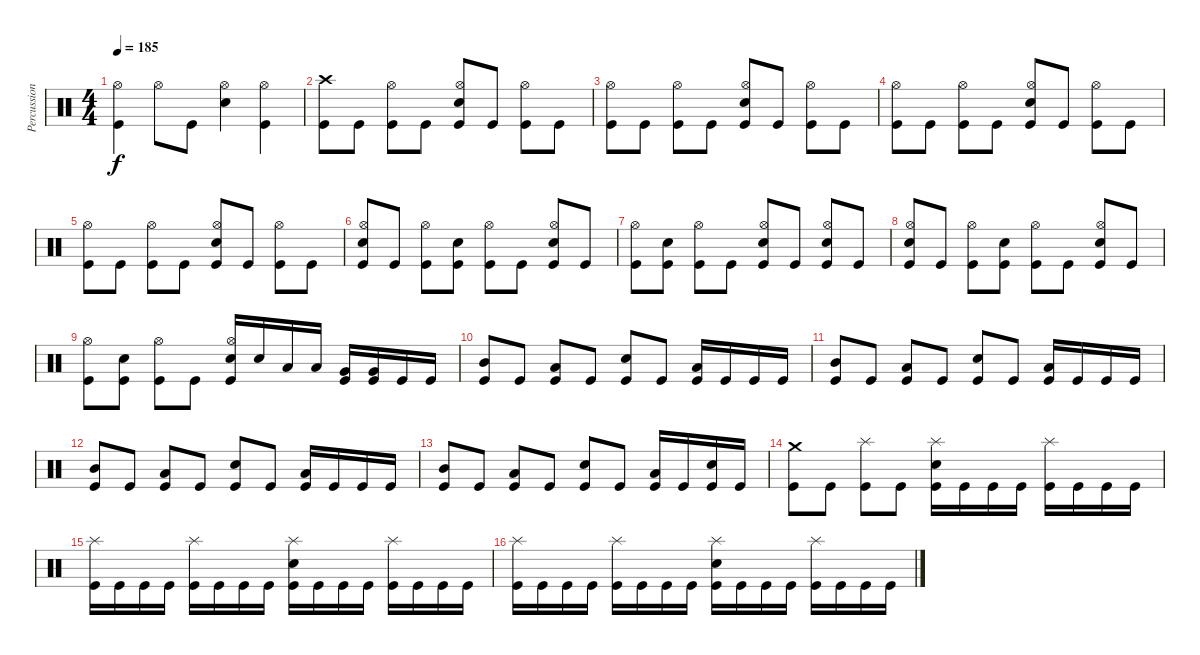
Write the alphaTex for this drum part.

\track ("Percussions" "Percussion") {instrument percussion}
\staff {score}
\articulation defaults
\ts (4 4)
\tempo 185
\clef neutral
\ks c
("Kick (hit)" "Hi-Hat (open)").4{dy f} "Hi-Hat (open)".8 "Kick (hit)".8 ("Electric Snare (hit)" "Hi-Hat (open)").4 ("Kick (hit)" "Hi-Hat (open)").4 |
("Kick (hit)" "Crash high (hit)").8 "Kick (hit)".8 ("Kick (hit)" "Hi-Hat (open)").8 "Kick (hit)".8 ("Kick (hit)" "Electric Snare (hit)" "Hi-Hat (open)").8 "Kick (hit)".8 ("Kick (hit)" "Hi-Hat (open)").8 "Kick (hit)".8 |
("Kick (hit)" "Hi-Hat (open)").8 "Kick (hit)".8 ("Kick (hit)" "Hi-Hat (open)").8 "Kick (hit)".8 ("Kick (hit)" "Electric Snare (hit)" "Hi-Hat (open)").8 "Kick (hit)".8 ("Kick (hit)" "Hi-Hat (open)").8 "Kick (hit)".8 |
("Kick (hit)" "Hi-Hat (open)").8 "Kick (hit)".8 ("Kick (hit)" "Hi-Hat (open)").8 "Kick (hit)".8 ("Kick (hit)" "Electric Snare (hit)" "Hi-Hat (open)").8 "Kick (hit)".8 ("Kick (hit)" "Hi-Hat (open)").8 "Kick (hit)".8 |
("Kick (hit)" "Hi-Hat (open)").8 "Kick (hit)".8 ("Kick (hit)" "Hi-Hat (open)").8 "Kick (hit)".8 ("Kick (hit)" "Electric Snare (hit)" "Hi-Hat (open)").8 "Kick (hit)".8 ("Kick (hit)" "Hi-Hat (open)").8 "Kick (hit)".8 |
("Kick (hit)" "Electric Snare (hit)" "Hi-Hat (open)").8 "Kick (hit)".8 ("Kick (hit)" "Hi-Hat (open)").8 ("Kick (hit)" "Electric Snare (hit)").8 ("Kick (hit)" "Hi-Hat (open)").8 "Kick (hit)".8 ("Kick (hit)" "Electric Snare (hit)" "Hi-Hat (open)").8 "Kick (hit)".8 |
("Kick (hit)" "Hi-Hat (open)").8 ("Kick (hit)" "Electric Snare (hit)").8 ("Kick (hit)" "Hi-Hat (open)").8 "Kick (hit)".8 ("Kick (hit)" "Electric Snare (hit)" "Hi-Hat (open)").8 "Kick (hit)".8 ("Kick (hit)" "Electric Snare (hit)" "Hi-Hat (open)").8 "Kick (hit)".8 |
("Kick (hit)" "Electric Snare (hit)" "Hi-Hat (open)").8 "Kick (hit)".8 ("Kick (hit)" "Hi-Hat (open)").8 ("Kick (hit)" "Electric Snare (hit)").8 ("Kick (hit)" "Hi-Hat (open)").8 "Kick (hit)".8 ("Kick (hit)" "Electric Snare (hit)" "Hi-Hat (open)").8 "Kick (hit)".8 |
("Kick (hit)" "Hi-Hat (open)").8 ("Kick (hit)" "Electric Snare (hit)").8 ("Kick (hit)" "Hi-Hat (open)").8 "Kick (hit)".8 ("Kick (hit)" "Electric Snare (hit)" "Hi-Hat (open)").16 "Electric Snare (hit)".16 "Low Tom (hit)".16 "Low Tom (hit)".16 ("Kick (hit)" "Very Low Tom (hit)").16 ("Kick (hit)" "Very Low Tom (hit)").16 "Kick (hit)".16 "Kick (hit)".16 |
("Kick (hit)" "Mid Tom (hit)").8 "Kick (hit)".8 ("Kick (hit)" "Low Tom (hit)").8 "Kick (hit)".8 ("Kick (hit)" "Electric Snare (hit)").8 "Kick (hit)".8 ("Kick (hit)" "Low Tom (hit)").16 "Kick (hit)".16 "Kick (hit)".16 "Kick (hit)".16 |
("Kick (hit)" "Mid Tom (hit)").8 "Kick (hit)".8 ("Kick (hit)" "Low Tom (hit)").8 "Kick (hit)".8 ("Kick (hit)" "Electric Snare (hit)").8 "Kick (hit)".8 ("Kick (hit)" "Low Tom (hit)").16 "Kick (hit)".16 "Kick (hit)".16 "Kick (hit)".16 |
("Kick (hit)" "Mid Tom (hit)").8 "Kick (hit)".8 ("Kick (hit)" "Low Tom (hit)").8 "Kick (hit)".8 ("Kick (hit)" "Electric Snare (hit)").8 "Kick (hit)".8 ("Kick (hit)" "Low Tom (hit)").16 "Kick (hit)".16 "Kick (hit)".16 "Kick (hit)".16 |
("Kick (hit)" "Mid Tom (hit)").8 "Kick (hit)".8 ("Kick (hit)" "Low Tom (hit)").8 "Kick (hit)".8 ("Kick (hit)" "Electric Snare (hit)").8 "Kick (hit)".8 ("Kick (hit)" "Low Tom (hit)").16 "Kick (hit)".16 ("Kick (hit)" "Electric Snare (hit)").16 "Kick (hit)".16 |
("Kick (hit)" "Crash medium (hit)").8 "Kick (hit)".8 ("Kick (hit)" "Splash (hit)").8 "Kick (hit)".8 ("Kick (hit)" "Electric Snare (hit)" "Splash (hit)").16 "Kick (hit)".16 "Kick (hit)".16 "Kick (hit)".16 ("Kick (hit)" "Splash (hit)").16 "Kick (hit)".16 "Kick (hit)".16 "Kick (hit)".16 |
("Kick (hit)" "Splash (hit)").16 "Kick (hit)".16 "Kick (hit)".16 "Kick (hit)".16 ("Kick (hit)" "Splash (hit)").16 "Kick (hit)".16 "Kick (hit)".16 "Kick (hit)".16 ("Kick (hit)" "Electric Snare (hit)" "Splash (hit)").16 "Kick (hit)".16 "Kick (hit)".16 "Kick (hit)".16 ("Kick (hit)" "Splash (hit)").16 "Kick (hit)".16 "Kick (hit)".16 "Kick (hit)".16 |
("Kick (hit)" "Splash (hit)").16 "Kick (hit)".16 "Kick (hit)".16 "Kick (hit)".16 ("Kick (hit)" "Splash (hit)").16 "Kick (hit)".16 "Kick (hit)".16 "Kick (hit)".16 ("Kick (hit)" "Electric Snare (hit)" "Splash (hit)").16 "Kick (hit)".16 "Kick (hit)".16 "Kick (hit)".16 ("Kick (hit)" "Splash (hit)").16 "Kick (hit)".16 "Kick (hit)".16 "Kick (hit)".16
